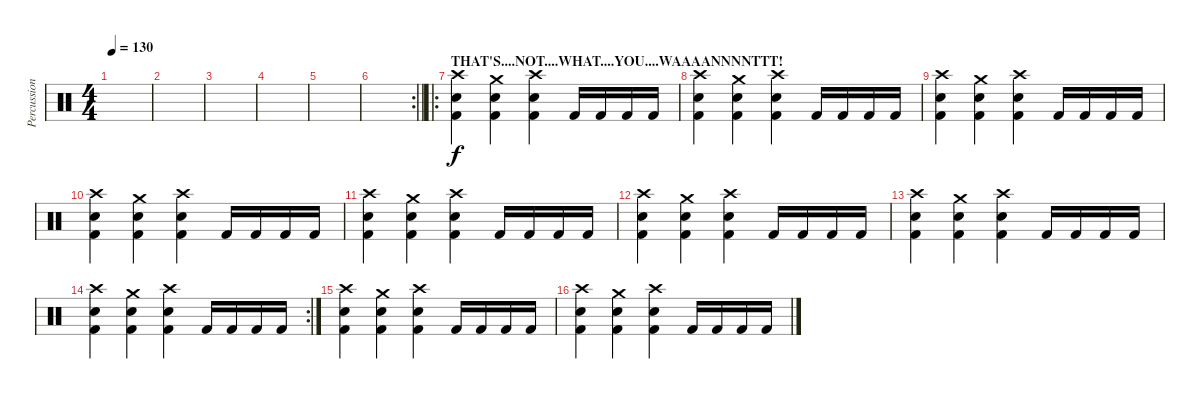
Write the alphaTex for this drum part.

\track ("Percussion" "Percussion") {instrument percussion}
\staff {score}
\articulation defaults
\ts (4 4)
\tempo 130
\clef neutral
\ks c
|
|
|
|
|
\rc 2
\barLineRight lightlight
|
\ro
\section ("" "THAT'S....NOT....WHAT....YOU....WAAAANNNNTTT!")
("Crash high (hit)" "Snare (hit) 2" "Kick (hit) 2").4 ("Crash medium (hit)" "Snare (hit) 2" "Kick (hit) 2").4 ("Crash high (hit)" "Snare (hit) 2" "Kick (hit) 2").4 "Kick (hit) 2".16 "Kick (hit) 2".16 "Kick (hit) 2".16 "Kick (hit) 2".16 |
("Crash high (hit)" "Snare (hit) 2" "Kick (hit) 2").4 ("Crash medium (hit)" "Snare (hit) 2" "Kick (hit) 2").4 ("Crash high (hit)" "Snare (hit) 2" "Kick (hit) 2").4 "Kick (hit) 2".16 "Kick (hit) 2".16 "Kick (hit) 2".16 "Kick (hit) 2".16 |
("Crash high (hit)" "Snare (hit) 2" "Kick (hit) 2").4 ("Crash medium (hit)" "Snare (hit) 2" "Kick (hit) 2").4 ("Crash high (hit)" "Snare (hit) 2" "Kick (hit) 2").4 "Kick (hit) 2".16 "Kick (hit) 2".16 "Kick (hit) 2".16 "Kick (hit) 2".16 |
("Crash high (hit)" "Snare (hit) 2" "Kick (hit) 2").4 ("Crash medium (hit)" "Snare (hit) 2" "Kick (hit) 2").4 ("Crash high (hit)" "Snare (hit) 2" "Kick (hit) 2").4 "Kick (hit) 2".16 "Kick (hit) 2".16 "Kick (hit) 2".16 "Kick (hit) 2".16 |
("Crash high (hit)" "Snare (hit) 2" "Kick (hit) 2").4 ("Crash medium (hit)" "Snare (hit) 2" "Kick (hit) 2").4 ("Crash high (hit)" "Snare (hit) 2" "Kick (hit) 2").4 "Kick (hit) 2".16 "Kick (hit) 2".16 "Kick (hit) 2".16 "Kick (hit) 2".16 |
("Crash high (hit)" "Snare (hit) 2" "Kick (hit) 2").4 ("Crash medium (hit)" "Snare (hit) 2" "Kick (hit) 2").4 ("Crash high (hit)" "Snare (hit) 2" "Kick (hit) 2").4 "Kick (hit) 2".16 "Kick (hit) 2".16 "Kick (hit) 2".16 "Kick (hit) 2".16 |
("Crash high (hit)" "Snare (hit) 2" "Kick (hit) 2").4 ("Crash medium (hit)" "Snare (hit) 2" "Kick (hit) 2").4 ("Crash high (hit)" "Snare (hit) 2" "Kick (hit) 2").4 "Kick (hit) 2".16 "Kick (hit) 2".16 "Kick (hit) 2".16 "Kick (hit) 2".16 |
\rc 2
("Crash high (hit)" "Snare (hit) 2" "Kick (hit) 2").4 ("Crash medium (hit)" "Snare (hit) 2" "Kick (hit) 2").4 ("Crash high (hit)" "Snare (hit) 2" "Kick (hit) 2").4 "Kick (hit) 2".16 "Kick (hit) 2".16 "Kick (hit) 2".16 "Kick (hit) 2".16 |
("Crash high (hit)" "Snare (hit) 2" "Kick (hit) 2").4 ("Crash medium (hit)" "Snare (hit) 2" "Kick (hit) 2").4 ("Crash high (hit)" "Snare (hit) 2" "Kick (hit) 2").4 "Kick (hit) 2".16 "Kick (hit) 2".16 "Kick (hit) 2".16 "Kick (hit) 2".16 |
("Crash high (hit)" "Snare (hit) 2" "Kick (hit) 2").4 ("Crash medium (hit)" "Snare (hit) 2" "Kick (hit) 2").4 ("Crash high (hit)" "Snare (hit) 2" "Kick (hit) 2").4 "Kick (hit) 2".16 "Kick (hit) 2".16 "Kick (hit) 2".16 "Kick (hit) 2".16
